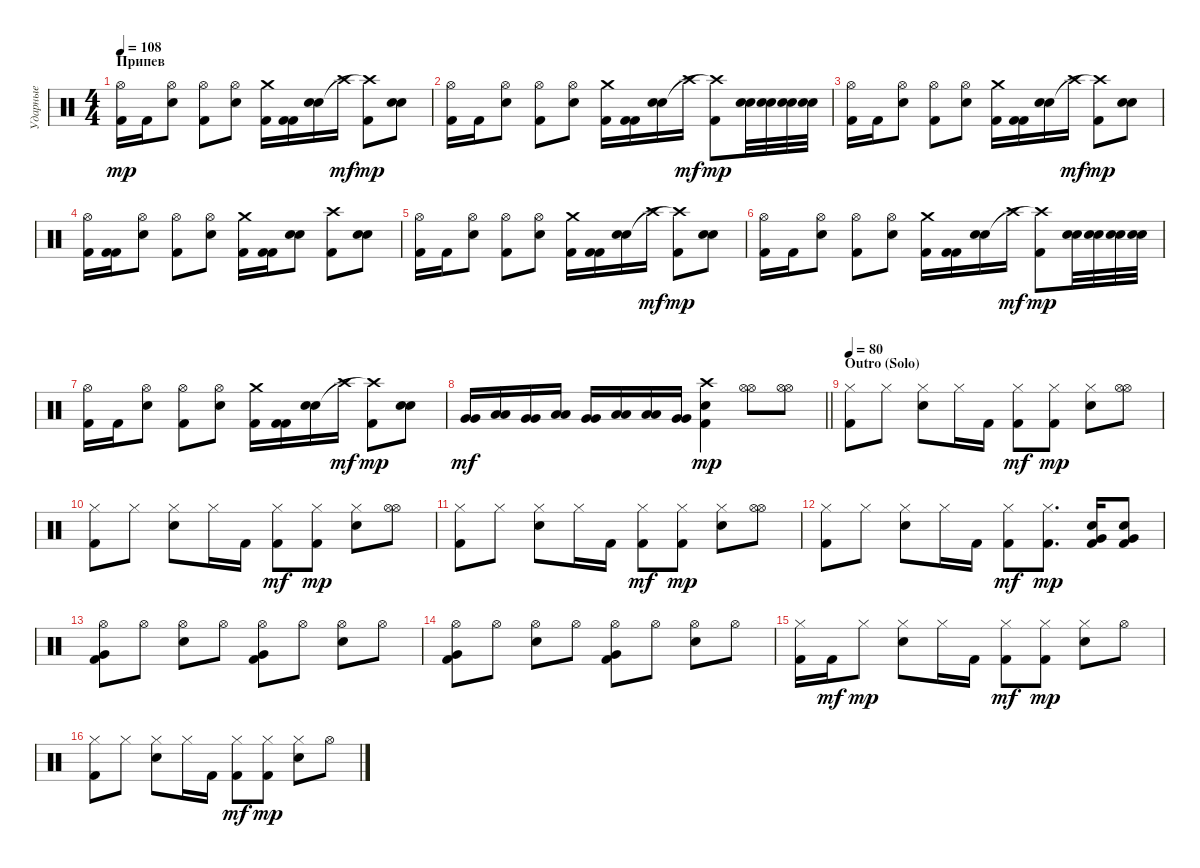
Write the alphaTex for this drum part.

\track ("Ударные" "Ударные") {instrument percussion}
\staff {score}
\articulation defaults
\ts (4 4)
\section ("" "Припев")
\tempo 108
\clef neutral
\ks c
("Kick (hit) 2" "Hi-Hat (open)").16{dy mp} "Kick (hit) 2".16 ("Snare (hit) 2" "Hi-Hat (open)").8 ("Kick (hit) 2" "Hi-Hat (open)").8 ("Snare (hit) 2" "Hi-Hat (open)").8 ("Kick (hit) 2" "Crash medium (hit)").16 ("Kick (hit) 2" "Kick (hit) 2").16 ("Snare (hit) 2" "Snare (hit) 2").16 "Crash high (hit)".16{dy mf} ("Kick (hit) 2" "Crash high (hit)"{t}).8{dy mp} ("Snare (hit) 2" "Snare (hit) 2").8 |
("Kick (hit) 2" "Hi-Hat (open)").16 "Kick (hit) 2".16 ("Snare (hit) 2" "Hi-Hat (open)").8 ("Kick (hit) 2" "Hi-Hat (open)").8 ("Snare (hit) 2" "Hi-Hat (open)").8 ("Kick (hit) 2" "Crash medium (hit)").16 ("Kick (hit) 2" "Kick (hit) 2").16 ("Snare (hit) 2" "Snare (hit) 2").16 "Crash high (hit)".16{dy mf} ("Kick (hit) 2" "Crash high (hit)"{t}).8{dy mp} ("Snare (hit) 2" "Snare (hit) 2").32 ("Snare (hit) 2" "Snare (hit) 2").32 ("Snare (hit) 2" "Snare (hit) 2").32 ("Snare (hit) 2" "Snare (hit) 2").32 |
("Kick (hit) 2" "Hi-Hat (open)").16 "Kick (hit) 2".16 ("Snare (hit) 2" "Hi-Hat (open)").8 ("Kick (hit) 2" "Hi-Hat (open)").8 ("Snare (hit) 2" "Hi-Hat (open)").8 ("Kick (hit) 2" "Crash medium (hit)").16 ("Kick (hit) 2" "Kick (hit) 2").16 ("Snare (hit) 2" "Snare (hit) 2").16 "Crash high (hit)".16{dy mf} ("Kick (hit) 2" "Crash high (hit)"{t}).8{dy mp} ("Snare (hit) 2" "Snare (hit) 2").8 |
("Kick (hit) 2" "Hi-Hat (open)").16 ("Kick (hit) 2" "Kick (hit) 2").16 ("Snare (hit) 2" "Hi-Hat (open)").8 ("Kick (hit) 2" "Hi-Hat (open)").8 ("Snare (hit) 2" "Hi-Hat (open)").8 ("Kick (hit) 2" "Crash medium (hit)").16 ("Kick (hit) 2" "Kick (hit) 2").16 ("Snare (hit) 2" "Snare (hit) 2").8 ("Kick (hit) 2" "Crash high (hit)").8 ("Snare (hit) 2" "Snare (hit) 2").8 |
("Kick (hit) 2" "Hi-Hat (open)").16 "Kick (hit) 2".16 ("Snare (hit) 2" "Hi-Hat (open)").8 ("Kick (hit) 2" "Hi-Hat (open)").8 ("Snare (hit) 2" "Hi-Hat (open)").8 ("Kick (hit) 2" "Crash medium (hit)").16 ("Kick (hit) 2" "Kick (hit) 2").16 ("Snare (hit) 2" "Snare (hit) 2").16 "Crash high (hit)".16{dy mf} ("Kick (hit) 2" "Crash high (hit)"{t}).8{dy mp} ("Snare (hit) 2" "Snare (hit) 2").8 |
("Kick (hit) 2" "Hi-Hat (open)").16 "Kick (hit) 2".16 ("Snare (hit) 2" "Hi-Hat (open)").8 ("Kick (hit) 2" "Hi-Hat (open)").8 ("Snare (hit) 2" "Hi-Hat (open)").8 ("Kick (hit) 2" "Crash medium (hit)").16 ("Kick (hit) 2" "Kick (hit) 2").16 ("Snare (hit) 2" "Snare (hit) 2").16 "Crash high (hit)".16{dy mf} ("Kick (hit) 2" "Crash high (hit)"{t}).8{dy mp} ("Snare (hit) 2" "Snare (hit) 2").32 ("Snare (hit) 2" "Snare (hit) 2").32 ("Snare (hit) 2" "Snare (hit) 2").32 ("Snare (hit) 2" "Snare (hit) 2").32 |
("Kick (hit) 2" "Hi-Hat (open)").16 "Kick (hit) 2".16 ("Snare (hit) 2" "Hi-Hat (open)").8 ("Kick (hit) 2" "Hi-Hat (open)").8 ("Snare (hit) 2" "Hi-Hat (open)").8 ("Kick (hit) 2" "Crash medium (hit)").16 ("Kick (hit) 2" "Kick (hit) 2").16 ("Snare (hit) 2" "Snare (hit) 2").16 "Crash high (hit)".16{dy mf} ("Kick (hit) 2" "Crash high (hit)"{t}).8{dy mp} ("Snare (hit) 2" "Snare (hit) 2").8 |
\barLineRight lightlight
("Very Low Tom (hit)" "Very Low Tom (hit)").16{dy mf} ("Low Tom (hit)" "Low Tom (hit)").16 ("Very Low Tom (hit)" "Very Low Tom (hit)").16 ("Low Tom (hit)" "Low Tom (hit)").16 ("Very Low Tom (hit)" "Very Low Tom (hit)").16 ("Low Floor Tom (hit)" "Low Floor Tom (hit)").16 ("Low Floor Tom (hit)" "Low Tom (hit)").16 ("Very Low Tom (hit)" "Very Low Tom (hit)").16 ("Kick (hit) 2" "Snare (hit) 2" "Crash high (hit)").4{dy mp} ("Hi-Hat (open)" "Hi-Hat (open)").8 ("Hi-Hat (open)" "Hi-Hat (open)").8 |
\section ("" "Outro (Solo) ")
\tempo 80
("Kick (hit) 2" "Hi-Hat (closed)").8 "Hi-Hat (closed)".8 ("Snare (hit) 2" "Hi-Hat (closed)").8 "Hi-Hat (closed)".16 "Kick (hit) 2".16 ("Kick (hit) 2" "Hi-Hat (closed)").8{dy mf} ("Kick (hit) 2" "Hi-Hat (closed)").8{dy mp} ("Snare (hit) 2" "Hi-Hat (closed)").8 ("Hi-Hat (open)" "Hi-Hat (open)").8 |
("Kick (hit) 2" "Hi-Hat (closed)").8 "Hi-Hat (closed)".8 ("Snare (hit) 2" "Hi-Hat (closed)").8 "Hi-Hat (closed)".16 "Kick (hit) 2".16 ("Kick (hit) 2" "Hi-Hat (closed)").8{dy mf} ("Kick (hit) 2" "Hi-Hat (closed)").8{dy mp} ("Snare (hit) 2" "Hi-Hat (closed)").8 ("Hi-Hat (open)" "Hi-Hat (open)").8 |
("Kick (hit) 2" "Hi-Hat (closed)").8 "Hi-Hat (closed)".8 ("Snare (hit) 2" "Hi-Hat (closed)").8 "Hi-Hat (closed)".16 "Kick (hit) 2".16 ("Kick (hit) 2" "Hi-Hat (closed)").8{dy mf} ("Kick (hit) 2" "Hi-Hat (closed)").8{dy mp} ("Snare (hit) 2" "Hi-Hat (closed)").8 ("Hi-Hat (open)" "Hi-Hat (open)").8 |
("Kick (hit) 2" "Hi-Hat (closed)").8 "Hi-Hat (closed)".8 ("Snare (hit) 2" "Hi-Hat (closed)").8 "Hi-Hat (closed)".16 "Kick (hit) 2".16 ("Kick (hit) 2" "Hi-Hat (closed)").8{dy mf} ("Kick (hit) 2" "Hi-Hat (closed)").8{d dy mp} ("Kick (hit) 2" "Snare (hit) 2" "Very Low Tom (hit)").16 ("Kick (hit) 2" "Snare (hit) 2" "Very Low Tom (hit)").8 |
("Kick (hit) 2" "Very Low Tom (hit)" "Hi-Hat (open)").8 "Hi-Hat (open)".8 ("Snare (hit) 2" "Hi-Hat (open)").8 "Hi-Hat (open)".8 ("Kick (hit) 2" "Very Low Tom (hit)" "Hi-Hat (open)").8 "Hi-Hat (open)".8 ("Snare (hit) 2" "Hi-Hat (open)").8 "Hi-Hat (open)".8 |
("Kick (hit) 2" "Very Low Tom (hit)" "Hi-Hat (open)").8 "Hi-Hat (open)".8 ("Snare (hit) 2" "Hi-Hat (open)").8 "Hi-Hat (open)".8 ("Kick (hit) 2" "Very Low Tom (hit)" "Hi-Hat (open)").8 "Hi-Hat (open)".8 ("Snare (hit) 2" "Hi-Hat (open)").8 "Hi-Hat (open)".8 |
("Kick (hit) 2" "Hi-Hat (closed)").16 "Kick (hit) 2".16{dy mf} "Hi-Hat (closed)".8{dy mp} ("Snare (hit) 2" "Hi-Hat (closed)").8 "Hi-Hat (closed)".16 "Kick (hit) 2".16 ("Kick (hit) 2" "Hi-Hat (closed)").8{dy mf} ("Kick (hit) 2" "Hi-Hat (closed)").8{dy mp} ("Snare (hit) 2" "Hi-Hat (closed)").8 "Hi-Hat (open)".8 |
("Kick (hit) 2" "Hi-Hat (closed)").8 "Hi-Hat (closed)".8 ("Snare (hit) 2" "Hi-Hat (closed)").8 "Hi-Hat (closed)".16 "Kick (hit) 2".16 ("Kick (hit) 2" "Hi-Hat (closed)").8{dy mf} ("Kick (hit) 2" "Hi-Hat (closed)").8{dy mp} ("Snare (hit) 2" "Hi-Hat (closed)").8 "Hi-Hat (open)".8
